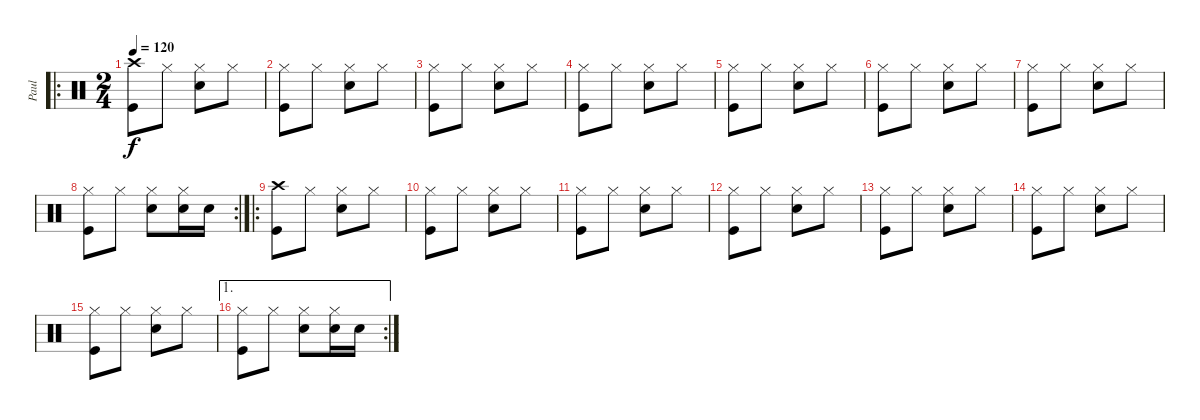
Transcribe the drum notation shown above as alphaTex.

\track ("Paul" "Paul") {instrument percussion}
\staff {score}
\articulation defaults
\ro
\ts (2 4)
\tempo 120
\clef neutral
\ks c
("Crash high (hit)" "Kick (hit)").8{dy f} "Hi-Hat (closed)".8 ("Hi-Hat (closed)" "Snare (hit) 2").8 "Hi-Hat (closed)".8 |
("Hi-Hat (closed)" "Kick (hit)").8 "Hi-Hat (closed)".8 ("Hi-Hat (closed)" "Snare (hit) 2").8 "Hi-Hat (closed)".8 |
("Hi-Hat (closed)" "Kick (hit)").8 "Hi-Hat (closed)".8 ("Hi-Hat (closed)" "Snare (hit) 2").8 "Hi-Hat (closed)".8 |
("Hi-Hat (closed)" "Kick (hit)").8 "Hi-Hat (closed)".8 ("Hi-Hat (closed)" "Snare (hit) 2").8 "Hi-Hat (closed)".8 |
("Hi-Hat (closed)" "Kick (hit)").8 "Hi-Hat (closed)".8 ("Hi-Hat (closed)" "Snare (hit) 2").8 "Hi-Hat (closed)".8 |
("Hi-Hat (closed)" "Kick (hit)").8 "Hi-Hat (closed)".8 ("Hi-Hat (closed)" "Snare (hit) 2").8 "Hi-Hat (closed)".8 |
("Hi-Hat (closed)" "Kick (hit)").8 "Hi-Hat (closed)".8 ("Hi-Hat (closed)" "Snare (hit) 2").8 "Hi-Hat (closed)".8 |
\rc 2
("Hi-Hat (closed)" "Kick (hit)").8 "Hi-Hat (closed)".8 ("Hi-Hat (closed)" "Snare (hit) 2").8 ("Hi-Hat (closed)" "Snare (hit) 2").16 "Snare (hit) 2".16 |
\ro
("Crash high (hit)" "Kick (hit)").8 "Hi-Hat (closed)".8 ("Hi-Hat (closed)" "Snare (hit) 2").8 "Hi-Hat (closed)".8 |
("Hi-Hat (closed)" "Kick (hit)").8 "Hi-Hat (closed)".8 ("Hi-Hat (closed)" "Snare (hit) 2").8 "Hi-Hat (closed)".8 |
("Hi-Hat (closed)" "Kick (hit)").8 "Hi-Hat (closed)".8 ("Hi-Hat (closed)" "Snare (hit) 2").8 "Hi-Hat (closed)".8 |
("Hi-Hat (closed)" "Kick (hit)").8 "Hi-Hat (closed)".8 ("Hi-Hat (closed)" "Snare (hit) 2").8 "Hi-Hat (closed)".8 |
("Hi-Hat (closed)" "Kick (hit)").8 "Hi-Hat (closed)".8 ("Hi-Hat (closed)" "Snare (hit) 2").8 "Hi-Hat (closed)".8 |
("Hi-Hat (closed)" "Kick (hit)").8 "Hi-Hat (closed)".8 ("Hi-Hat (closed)" "Snare (hit) 2").8 "Hi-Hat (closed)".8 |
("Hi-Hat (closed)" "Kick (hit)").8 "Hi-Hat (closed)".8 ("Hi-Hat (closed)" "Snare (hit) 2").8 "Hi-Hat (closed)".8 |
\ae 1
\rc 2
("Hi-Hat (closed)" "Kick (hit)").8 "Hi-Hat (closed)".8 ("Hi-Hat (closed)" "Snare (hit) 2").8 ("Hi-Hat (closed)" "Snare (hit) 2").16 "Snare (hit) 2".16
